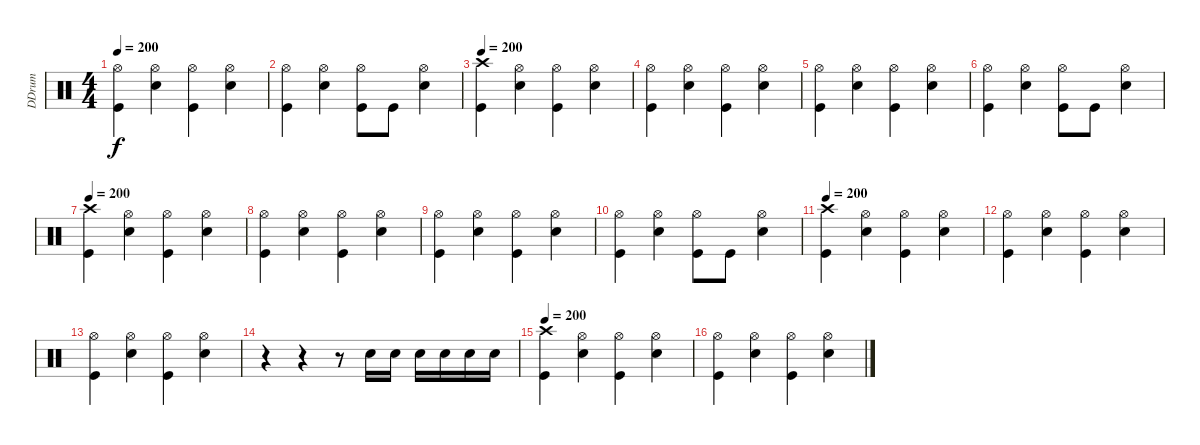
\track ("DDrum" "DDrum") {instrument percussion}
\staff {score}
\articulation defaults
\ts (4 4)
\tempo 200
\clef neutral
\ks c
("Hi-Hat (open)" "Kick (hit)").4{dy f} ("Hi-Hat (open)" "Electric Snare (hit)").4 ("Hi-Hat (open)" "Kick (hit)").4 ("Hi-Hat (open)" "Electric Snare (hit)").4 |
("Hi-Hat (open)" "Kick (hit)").4 ("Hi-Hat (open)" "Electric Snare (hit)").4 ("Hi-Hat (open)" "Kick (hit)").8 "Kick (hit)".8 ("Hi-Hat (open)" "Electric Snare (hit)").4 |
\tempo 200
("Crash high (hit)" "Kick (hit)").4 ("Hi-Hat (open)" "Electric Snare (hit)").4 ("Hi-Hat (open)" "Kick (hit)").4 ("Hi-Hat (open)" "Electric Snare (hit)").4 |
("Hi-Hat (open)" "Kick (hit)").4 ("Hi-Hat (open)" "Electric Snare (hit)").4 ("Hi-Hat (open)" "Kick (hit)").4 ("Hi-Hat (open)" "Electric Snare (hit)").4 |
("Hi-Hat (open)" "Kick (hit)").4 ("Hi-Hat (open)" "Electric Snare (hit)").4 ("Hi-Hat (open)" "Kick (hit)").4 ("Hi-Hat (open)" "Electric Snare (hit)").4 |
("Hi-Hat (open)" "Kick (hit)").4 ("Hi-Hat (open)" "Electric Snare (hit)").4 ("Hi-Hat (open)" "Kick (hit)").8 "Kick (hit)".8 ("Hi-Hat (open)" "Electric Snare (hit)").4 |
\tempo 200
("Crash high (hit)" "Kick (hit)").4 ("Hi-Hat (open)" "Electric Snare (hit)").4 ("Hi-Hat (open)" "Kick (hit)").4 ("Hi-Hat (open)" "Electric Snare (hit)").4 |
("Hi-Hat (open)" "Kick (hit)").4 ("Hi-Hat (open)" "Electric Snare (hit)").4 ("Hi-Hat (open)" "Kick (hit)").4 ("Hi-Hat (open)" "Electric Snare (hit)").4 |
("Hi-Hat (open)" "Kick (hit)").4 ("Hi-Hat (open)" "Electric Snare (hit)").4 ("Hi-Hat (open)" "Kick (hit)").4 ("Hi-Hat (open)" "Electric Snare (hit)").4 |
("Hi-Hat (open)" "Kick (hit)").4 ("Hi-Hat (open)" "Electric Snare (hit)").4 ("Hi-Hat (open)" "Kick (hit)").8 "Kick (hit)".8 ("Hi-Hat (open)" "Electric Snare (hit)").4 |
\tempo 200
("Crash high (hit)" "Kick (hit)").4 ("Hi-Hat (open)" "Electric Snare (hit)").4 ("Hi-Hat (open)" "Kick (hit)").4 ("Hi-Hat (open)" "Electric Snare (hit)").4 |
("Hi-Hat (open)" "Kick (hit)").4 ("Hi-Hat (open)" "Electric Snare (hit)").4 ("Hi-Hat (open)" "Kick (hit)").4 ("Hi-Hat (open)" "Electric Snare (hit)").4 |
("Hi-Hat (open)" "Kick (hit)").4 ("Hi-Hat (open)" "Electric Snare (hit)").4 ("Hi-Hat (open)" "Kick (hit)").4 ("Hi-Hat (open)" "Electric Snare (hit)").4 |
r.4 r.4 r.8 "Electric Snare (hit)".16 "Electric Snare (hit)".16 "Electric Snare (hit)".16 "Electric Snare (hit)".16 "Electric Snare (hit)".16 "Electric Snare (hit)".16 |
\tempo 200
("Crash high (hit)" "Kick (hit)").4 ("Hi-Hat (open)" "Electric Snare (hit)").4 ("Hi-Hat (open)" "Kick (hit)").4 ("Hi-Hat (open)" "Electric Snare (hit)").4 |
("Hi-Hat (open)" "Kick (hit)").4 ("Hi-Hat (open)" "Electric Snare (hit)").4 ("Hi-Hat (open)" "Kick (hit)").4 ("Hi-Hat (open)" "Electric Snare (hit)").4
